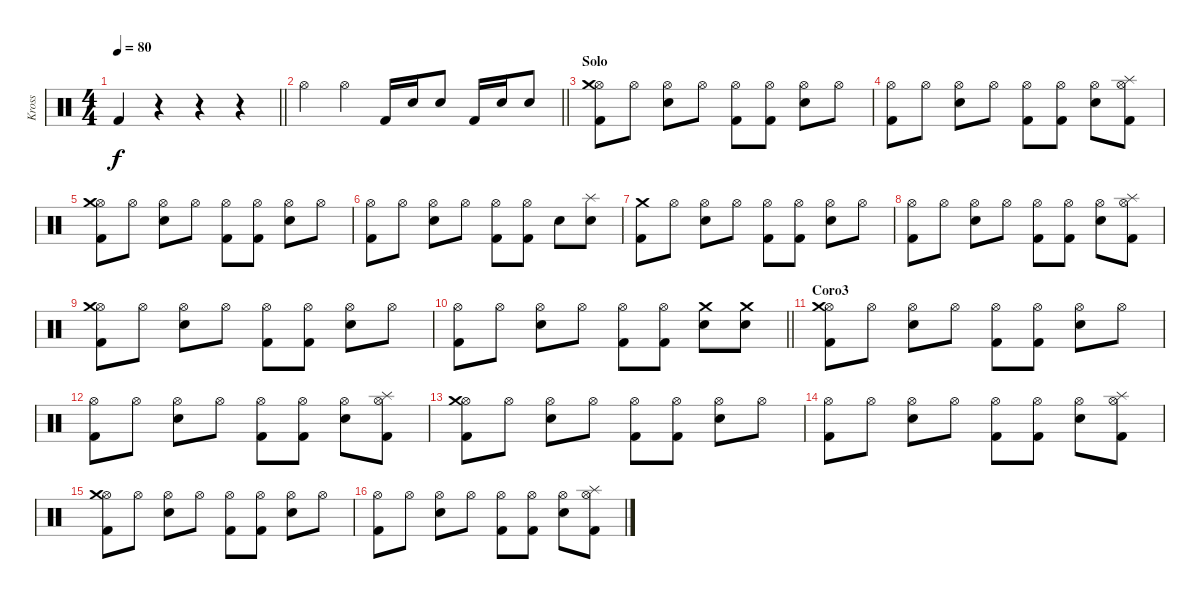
\track ("Kross" "Kross") {instrument percussion}
\staff {score}
\articulation defaults
\ts (4 4)
\tempo 80
\clef neutral
\barLineRight lightlight
\ks c "Kick (hit) 2".4{dy f}
r.4 r.4 r.4 |
\barLineRight lightlight "Hi-Hat (open)".4 "Hi-Hat (open)".4 "Kick (hit) 2".16 "Electric Snare (hit)".16 "Electric Snare (hit)".8 "Kick (hit) 2".16 "Electric Snare (hit)".16 "Electric Snare (hit)".8
|
\section ("" "Solo")
("Hi-Hat (open)" "Crash medium (hit)" "Kick (hit) 2").8 "Hi-Hat (open)".8 ("Hi-Hat (open)" "Snare (hit) 2").8 "Hi-Hat (open)".8 ("Hi-Hat (open)" "Kick (hit) 2").8 ("Hi-Hat (open)" "Kick (hit) 2").8 ("Hi-Hat (open)" "Snare (hit) 2").8 "Hi-Hat (open)".8 |
("Hi-Hat (open)" "Kick (hit) 2").8 "Hi-Hat (open)".8 ("Hi-Hat (open)" "Snare (hit) 2").8 "Hi-Hat (open)".8 ("Hi-Hat (open)" "Kick (hit) 2").8 ("Hi-Hat (open)" "Kick (hit) 2").8 ("Hi-Hat (open)" "Snare (hit) 2").8 ("Hi-Hat (open)" "Splash (hit)" "Kick (hit) 2").8 |
("Hi-Hat (open)" "Crash medium (hit)" "Kick (hit) 2").8 "Hi-Hat (open)".8 ("Hi-Hat (open)" "Snare (hit) 2").8 "Hi-Hat (open)".8 ("Hi-Hat (open)" "Kick (hit) 2").8 ("Hi-Hat (open)" "Kick (hit) 2").8 ("Hi-Hat (open)" "Snare (hit) 2").8 "Hi-Hat (open)".8 |
("Hi-Hat (open)" "Kick (hit) 2").8 "Hi-Hat (open)".8 ("Hi-Hat (open)" "Snare (hit) 2").8 "Hi-Hat (open)".8 ("Hi-Hat (open)" "Kick (hit) 2").8 ("Hi-Hat (open)" "Kick (hit) 2").8 "Snare (hit) 2".8 ("Splash (hit)" "Snare (hit) 2").8 |
("Crash medium (hit)" "Kick (hit) 2").8 "Hi-Hat (open)".8 ("Hi-Hat (open)" "Snare (hit) 2").8 "Hi-Hat (open)".8 ("Hi-Hat (open)" "Kick (hit) 2").8 ("Hi-Hat (open)" "Kick (hit) 2").8 ("Hi-Hat (open)" "Snare (hit) 2").8 "Hi-Hat (open)".8 |
("Hi-Hat (open)" "Kick (hit) 2").8 "Hi-Hat (open)".8 ("Hi-Hat (open)" "Snare (hit) 2").8 "Hi-Hat (open)".8 ("Hi-Hat (open)" "Kick (hit) 2").8 ("Hi-Hat (open)" "Kick (hit) 2").8 ("Hi-Hat (open)" "Snare (hit) 2").8 ("Hi-Hat (open)" "Splash (hit)" "Kick (hit) 2").8 |
("Hi-Hat (open)" "Crash medium (hit)" "Kick (hit) 2").8 "Hi-Hat (open)".8 ("Hi-Hat (open)" "Snare (hit) 2").8 "Hi-Hat (open)".8 ("Hi-Hat (open)" "Kick (hit) 2").8 ("Hi-Hat (open)" "Kick (hit) 2").8 ("Hi-Hat (open)" "Snare (hit) 2").8 "Hi-Hat (open)".8 |
\barLineRight lightlight
("Hi-Hat (open)" "Kick (hit) 2").8 "Hi-Hat (open)".8 ("Hi-Hat (open)" "Snare (hit) 2").8 "Hi-Hat (open)".8 ("Hi-Hat (open)" "Kick (hit) 2").8 ("Hi-Hat (open)" "Kick (hit) 2").8 ("Crash medium (hit)" "Snare (hit) 2").8 ("Crash medium (hit)" "Snare (hit) 2").8 |
\section ("" "Coro3")
("Hi-Hat (open)" "Crash medium (hit)" "Kick (hit) 2").8 "Hi-Hat (open)".8 ("Hi-Hat (open)" "Snare (hit) 2").8 "Hi-Hat (open)".8 ("Hi-Hat (open)" "Kick (hit) 2").8 ("Hi-Hat (open)" "Kick (hit) 2").8 ("Hi-Hat (open)" "Snare (hit) 2").8 "Hi-Hat (open)".8 |
("Hi-Hat (open)" "Kick (hit) 2").8 "Hi-Hat (open)".8 ("Hi-Hat (open)" "Snare (hit) 2").8 "Hi-Hat (open)".8 ("Hi-Hat (open)" "Kick (hit) 2").8 ("Hi-Hat (open)" "Kick (hit) 2").8 ("Hi-Hat (open)" "Snare (hit) 2").8 ("Hi-Hat (open)" "Splash (hit)" "Kick (hit) 2").8 |
("Hi-Hat (open)" "Crash medium (hit)" "Kick (hit) 2").8 "Hi-Hat (open)".8 ("Hi-Hat (open)" "Snare (hit) 2").8 "Hi-Hat (open)".8 ("Hi-Hat (open)" "Kick (hit) 2").8 ("Hi-Hat (open)" "Kick (hit) 2").8 ("Hi-Hat (open)" "Snare (hit) 2").8 "Hi-Hat (open)".8 |
("Hi-Hat (open)" "Kick (hit) 2").8 "Hi-Hat (open)".8 ("Hi-Hat (open)" "Snare (hit) 2").8 "Hi-Hat (open)".8 ("Hi-Hat (open)" "Kick (hit) 2").8 ("Hi-Hat (open)" "Kick (hit) 2").8 ("Hi-Hat (open)" "Snare (hit) 2").8 ("Hi-Hat (open)" "Splash (hit)" "Kick (hit) 2").8 |
("Hi-Hat (open)" "Crash medium (hit)" "Kick (hit) 2").8 "Hi-Hat (open)".8 ("Hi-Hat (open)" "Snare (hit) 2").8 "Hi-Hat (open)".8 ("Hi-Hat (open)" "Kick (hit) 2").8 ("Hi-Hat (open)" "Kick (hit) 2").8 ("Hi-Hat (open)" "Snare (hit) 2").8 "Hi-Hat (open)".8 |
("Hi-Hat (open)" "Kick (hit) 2").8 "Hi-Hat (open)".8 ("Hi-Hat (open)" "Snare (hit) 2").8 "Hi-Hat (open)".8 ("Hi-Hat (open)" "Kick (hit) 2").8 ("Hi-Hat (open)" "Kick (hit) 2").8 ("Hi-Hat (open)" "Snare (hit) 2").8 ("Hi-Hat (open)" "Splash (hit)" "Kick (hit) 2").8
